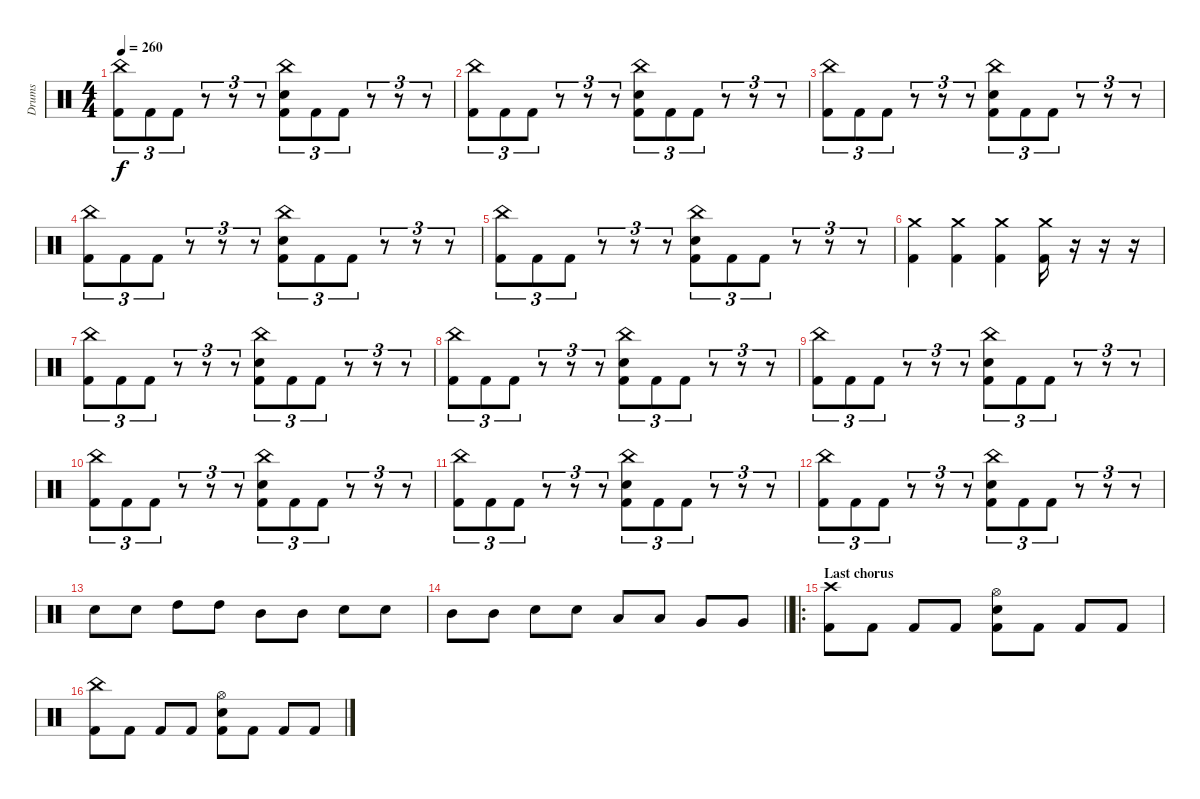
\track ("Drums" "Drums") {instrument percussion}
\staff {score}
\articulation defaults
\ts (4 4)
\tempo 260
\clef neutral
\ks c
("China (hit)" "Kick (hit) 2").8{tu (3 2) dy f} "Kick (hit) 2".8{tu (3 2)} "Kick (hit) 2".8{tu (3 2)} r.8{tu (3 2)} r.8{tu (3 2)} r.8{tu (3 2)} ("China (hit)" "Electric Snare (hit)" "Kick (hit) 2").8{tu (3 2)} "Kick (hit) 2".8{tu (3 2)} "Kick (hit) 2".8{tu (3 2)} r.8{tu (3 2)} r.8{tu (3 2)} r.8{tu (3 2)} |
("China (hit)" "Kick (hit) 2").8{tu (3 2)} "Kick (hit) 2".8{tu (3 2)} "Kick (hit) 2".8{tu (3 2)} r.8{tu (3 2)} r.8{tu (3 2)} r.8{tu (3 2)} ("China (hit)" "Electric Snare (hit)" "Kick (hit) 2").8{tu (3 2)} "Kick (hit) 2".8{tu (3 2)} "Kick (hit) 2".8{tu (3 2)} r.8{tu (3 2)} r.8{tu (3 2)} r.8{tu (3 2)} |
("China (hit)" "Kick (hit) 2").8{tu (3 2)} "Kick (hit) 2".8{tu (3 2)} "Kick (hit) 2".8{tu (3 2)} r.8{tu (3 2)} r.8{tu (3 2)} r.8{tu (3 2)} ("China (hit)" "Electric Snare (hit)" "Kick (hit) 2").8{tu (3 2)} "Kick (hit) 2".8{tu (3 2)} "Kick (hit) 2".8{tu (3 2)} r.8{tu (3 2)} r.8{tu (3 2)} r.8{tu (3 2)} |
("China (hit)" "Kick (hit) 2").8{tu (3 2)} "Kick (hit) 2".8{tu (3 2)} "Kick (hit) 2".8{tu (3 2)} r.8{tu (3 2)} r.8{tu (3 2)} r.8{tu (3 2)} ("China (hit)" "Electric Snare (hit)" "Kick (hit) 2").8{tu (3 2)} "Kick (hit) 2".8{tu (3 2)} "Kick (hit) 2".8{tu (3 2)} r.8{tu (3 2)} r.8{tu (3 2)} r.8{tu (3 2)} |
("China (hit)" "Kick (hit) 2").8{tu (3 2)} "Kick (hit) 2".8{tu (3 2)} "Kick (hit) 2".8{tu (3 2)} r.8{tu (3 2)} r.8{tu (3 2)} r.8{tu (3 2)} ("China (hit)" "Electric Snare (hit)" "Kick (hit) 2").8{tu (3 2)} "Kick (hit) 2".8{tu (3 2)} "Kick (hit) 2".8{tu (3 2)} r.8{tu (3 2)} r.8{tu (3 2)} r.8{tu (3 2)} |
("Crash medium (hit)" "Kick (hit) 2").4 ("Crash medium (hit)" "Kick (hit) 2").4 ("Crash medium (hit)" "Kick (hit) 2").4 ("Crash medium (hit)" "Kick (hit) 2").16 r.16 r.16 r.16 |
("China (hit)" "Kick (hit) 2").8{tu (3 2)} "Kick (hit) 2".8{tu (3 2)} "Kick (hit) 2".8{tu (3 2)} r.8{tu (3 2)} r.8{tu (3 2)} r.8{tu (3 2)} ("China (hit)" "Electric Snare (hit)" "Kick (hit) 2").8{tu (3 2)} "Kick (hit) 2".8{tu (3 2)} "Kick (hit) 2".8{tu (3 2)} r.8{tu (3 2)} r.8{tu (3 2)} r.8{tu (3 2)} |
("China (hit)" "Kick (hit) 2").8{tu (3 2)} "Kick (hit) 2".8{tu (3 2)} "Kick (hit) 2".8{tu (3 2)} r.8{tu (3 2)} r.8{tu (3 2)} r.8{tu (3 2)} ("China (hit)" "Electric Snare (hit)" "Kick (hit) 2").8{tu (3 2)} "Kick (hit) 2".8{tu (3 2)} "Kick (hit) 2".8{tu (3 2)} r.8{tu (3 2)} r.8{tu (3 2)} r.8{tu (3 2)} |
("China (hit)" "Kick (hit) 2").8{tu (3 2)} "Kick (hit) 2".8{tu (3 2)} "Kick (hit) 2".8{tu (3 2)} r.8{tu (3 2)} r.8{tu (3 2)} r.8{tu (3 2)} ("China (hit)" "Electric Snare (hit)" "Kick (hit) 2").8{tu (3 2)} "Kick (hit) 2".8{tu (3 2)} "Kick (hit) 2".8{tu (3 2)} r.8{tu (3 2)} r.8{tu (3 2)} r.8{tu (3 2)} |
("China (hit)" "Kick (hit) 2").8{tu (3 2)} "Kick (hit) 2".8{tu (3 2)} "Kick (hit) 2".8{tu (3 2)} r.8{tu (3 2)} r.8{tu (3 2)} r.8{tu (3 2)} ("China (hit)" "Electric Snare (hit)" "Kick (hit) 2").8{tu (3 2)} "Kick (hit) 2".8{tu (3 2)} "Kick (hit) 2".8{tu (3 2)} r.8{tu (3 2)} r.8{tu (3 2)} r.8{tu (3 2)} |
("China (hit)" "Kick (hit) 2").8{tu (3 2)} "Kick (hit) 2".8{tu (3 2)} "Kick (hit) 2".8{tu (3 2)} r.8{tu (3 2)} r.8{tu (3 2)} r.8{tu (3 2)} ("China (hit)" "Electric Snare (hit)" "Kick (hit) 2").8{tu (3 2)} "Kick (hit) 2".8{tu (3 2)} "Kick (hit) 2".8{tu (3 2)} r.8{tu (3 2)} r.8{tu (3 2)} r.8{tu (3 2)} |
("China (hit)" "Kick (hit) 2").8{tu (3 2)} "Kick (hit) 2".8{tu (3 2)} "Kick (hit) 2".8{tu (3 2)} r.8{tu (3 2)} r.8{tu (3 2)} r.8{tu (3 2)} ("China (hit)" "Electric Snare (hit)" "Kick (hit) 2").8{tu (3 2)} "Kick (hit) 2".8{tu (3 2)} "Kick (hit) 2".8{tu (3 2)} r.8{tu (3 2)} r.8{tu (3 2)} r.8{tu (3 2)} |
"Electric Snare (hit)".8 "Electric Snare (hit)".8 "High Tom (hit)".8 "High Tom (hit)".8 "Mid Tom (hit)".8 "Mid Tom (hit)".8 "Electric Snare (hit)".8 "Electric Snare (hit)".8 |
\barLineRight lightlight "Mid Tom (hit)".8 "Mid Tom (hit)".8 "Electric Snare (hit)".8 "Electric Snare (hit)".8 "Low Tom (hit)".8 "Low Tom (hit)".8 "Very Low Tom (hit)".8 "Very Low Tom (hit)".8
|
\ro
\section ("" "Last chorus")
("Crash high (hit)" "Kick (hit) 2").8 "Kick (hit) 2".8 "Kick (hit) 2".8 "Kick (hit) 2".8 ("Hi-Hat (open)" "Electric Snare (hit)" "Kick (hit) 2").8 "Kick (hit) 2".8 "Kick (hit) 2".8 "Kick (hit) 2".8 |
("China (hit)" "Kick (hit) 2").8 "Kick (hit) 2".8 "Kick (hit) 2".8 "Kick (hit) 2".8 ("Hi-Hat (open)" "Electric Snare (hit)" "Kick (hit) 2").8 "Kick (hit) 2".8 "Kick (hit) 2".8 "Kick (hit) 2".8
